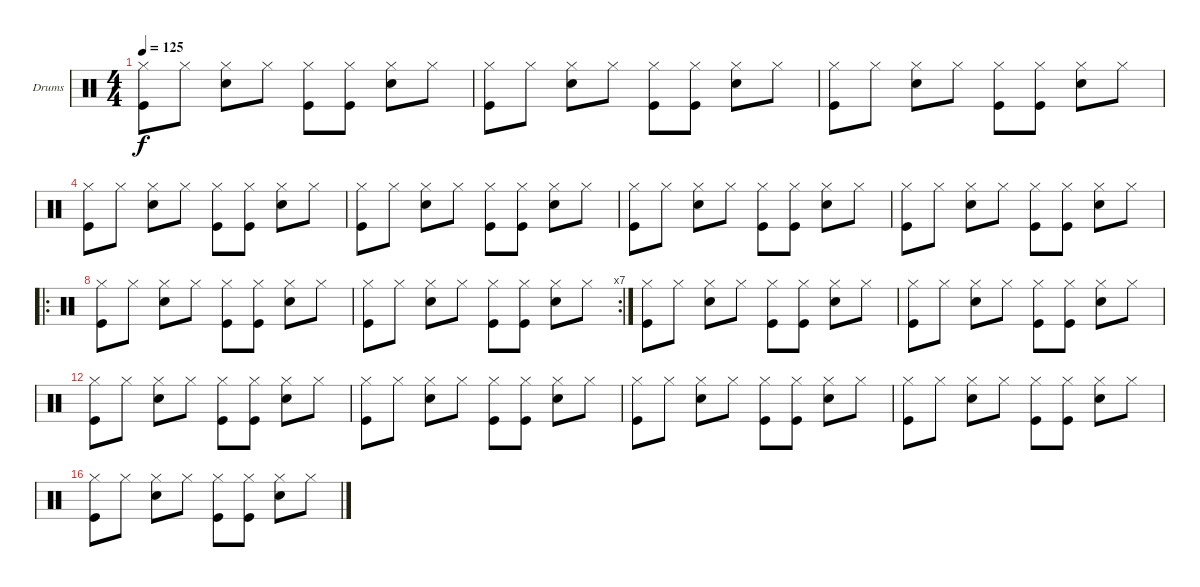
\bracketExtendMode nobrackets
\firstSystemTrackNameOrientation horizontal
\otherSystemsTrackNameOrientation horizontal
\defaultBarNumberDisplay FirstOfSystem
\track ("Drumkit" "Drums") {instrument percussion}
\staff {score}
\articulation defaults
\ts (4 4)
\tempo 125
\clef neutral
\ks c
("Hi-Hat (closed)" "Kick (hit)").8{dy f} "Hi-Hat (closed)".8 ("Hi-Hat (closed)" "Snare (hit) 2").8 "Hi-Hat (closed)".8 ("Hi-Hat (closed)" "Kick (hit)").8 ("Hi-Hat (closed)" "Kick (hit)").8 ("Hi-Hat (closed)" "Snare (hit) 2").8 "Hi-Hat (closed)".8 |
("Hi-Hat (closed)" "Kick (hit)").8 "Hi-Hat (closed)".8 ("Hi-Hat (closed)" "Snare (hit) 2").8 "Hi-Hat (closed)".8 ("Hi-Hat (closed)" "Kick (hit)").8 ("Hi-Hat (closed)" "Kick (hit)").8 ("Hi-Hat (closed)" "Snare (hit) 2").8 "Hi-Hat (closed)".8 |
("Hi-Hat (closed)" "Kick (hit)").8 "Hi-Hat (closed)".8 ("Hi-Hat (closed)" "Snare (hit) 2").8 "Hi-Hat (closed)".8 ("Hi-Hat (closed)" "Kick (hit)").8 ("Hi-Hat (closed)" "Kick (hit)").8 ("Hi-Hat (closed)" "Snare (hit) 2").8 "Hi-Hat (closed)".8 |
("Hi-Hat (closed)" "Kick (hit)").8 "Hi-Hat (closed)".8 ("Hi-Hat (closed)" "Snare (hit) 2").8 "Hi-Hat (closed)".8 ("Hi-Hat (closed)" "Kick (hit)").8 ("Hi-Hat (closed)" "Kick (hit)").8 ("Hi-Hat (closed)" "Snare (hit) 2").8 "Hi-Hat (closed)".8 |
("Hi-Hat (closed)" "Kick (hit)").8 "Hi-Hat (closed)".8 ("Hi-Hat (closed)" "Snare (hit) 2").8 "Hi-Hat (closed)".8 ("Hi-Hat (closed)" "Kick (hit)").8 ("Hi-Hat (closed)" "Kick (hit)").8 ("Hi-Hat (closed)" "Snare (hit) 2").8 "Hi-Hat (closed)".8 |
("Hi-Hat (closed)" "Kick (hit)").8 "Hi-Hat (closed)".8 ("Hi-Hat (closed)" "Snare (hit) 2").8 "Hi-Hat (closed)".8 ("Hi-Hat (closed)" "Kick (hit)").8 ("Hi-Hat (closed)" "Kick (hit)").8 ("Hi-Hat (closed)" "Snare (hit) 2").8 "Hi-Hat (closed)".8 |
("Hi-Hat (closed)" "Kick (hit)").8 "Hi-Hat (closed)".8 ("Hi-Hat (closed)" "Snare (hit) 2").8 "Hi-Hat (closed)".8 ("Hi-Hat (closed)" "Kick (hit)").8 ("Hi-Hat (closed)" "Kick (hit)").8 ("Hi-Hat (closed)" "Snare (hit) 2").8 "Hi-Hat (closed)".8 |
\ro
("Hi-Hat (closed)" "Kick (hit)").8 "Hi-Hat (closed)".8 ("Hi-Hat (closed)" "Snare (hit) 2").8 "Hi-Hat (closed)".8 ("Hi-Hat (closed)" "Kick (hit)").8 ("Hi-Hat (closed)" "Kick (hit)").8 ("Hi-Hat (closed)" "Snare (hit) 2").8 "Hi-Hat (closed)".8 |
\rc 7
("Hi-Hat (closed)" "Kick (hit)").8 "Hi-Hat (closed)".8 ("Hi-Hat (closed)" "Snare (hit) 2").8 "Hi-Hat (closed)".8 ("Hi-Hat (closed)" "Kick (hit)").8 ("Hi-Hat (closed)" "Kick (hit)").8 ("Hi-Hat (closed)" "Snare (hit) 2").8 "Hi-Hat (closed)".8 |
("Hi-Hat (closed)" "Kick (hit)").8 "Hi-Hat (closed)".8 ("Hi-Hat (closed)" "Snare (hit) 2").8 "Hi-Hat (closed)".8 ("Hi-Hat (closed)" "Kick (hit)").8 ("Hi-Hat (closed)" "Kick (hit)").8 ("Hi-Hat (closed)" "Snare (hit) 2").8 "Hi-Hat (closed)".8 |
("Hi-Hat (closed)" "Kick (hit)").8 "Hi-Hat (closed)".8 ("Hi-Hat (closed)" "Snare (hit) 2").8 "Hi-Hat (closed)".8 ("Hi-Hat (closed)" "Kick (hit)").8 ("Hi-Hat (closed)" "Kick (hit)").8 ("Hi-Hat (closed)" "Snare (hit) 2").8 "Hi-Hat (closed)".8 |
("Hi-Hat (closed)" "Kick (hit)").8 "Hi-Hat (closed)".8 ("Hi-Hat (closed)" "Snare (hit) 2").8 "Hi-Hat (closed)".8 ("Hi-Hat (closed)" "Kick (hit)").8 ("Hi-Hat (closed)" "Kick (hit)").8 ("Hi-Hat (closed)" "Snare (hit) 2").8 "Hi-Hat (closed)".8 |
("Hi-Hat (closed)" "Kick (hit)").8 "Hi-Hat (closed)".8 ("Hi-Hat (closed)" "Snare (hit) 2").8 "Hi-Hat (closed)".8 ("Hi-Hat (closed)" "Kick (hit)").8 ("Hi-Hat (closed)" "Kick (hit)").8 ("Hi-Hat (closed)" "Snare (hit) 2").8 "Hi-Hat (closed)".8 |
("Hi-Hat (closed)" "Kick (hit)").8 "Hi-Hat (closed)".8 ("Hi-Hat (closed)" "Snare (hit) 2").8 "Hi-Hat (closed)".8 ("Hi-Hat (closed)" "Kick (hit)").8 ("Hi-Hat (closed)" "Kick (hit)").8 ("Hi-Hat (closed)" "Snare (hit) 2").8 "Hi-Hat (closed)".8 |
("Hi-Hat (closed)" "Kick (hit)").8 "Hi-Hat (closed)".8 ("Hi-Hat (closed)" "Snare (hit) 2").8 "Hi-Hat (closed)".8 ("Hi-Hat (closed)" "Kick (hit)").8 ("Hi-Hat (closed)" "Kick (hit)").8 ("Hi-Hat (closed)" "Snare (hit) 2").8 "Hi-Hat (closed)".8 |
("Hi-Hat (closed)" "Kick (hit)").8 "Hi-Hat (closed)".8 ("Hi-Hat (closed)" "Snare (hit) 2").8 "Hi-Hat (closed)".8 ("Hi-Hat (closed)" "Kick (hit)").8 ("Hi-Hat (closed)" "Kick (hit)").8 ("Hi-Hat (closed)" "Snare (hit) 2").8 "Hi-Hat (closed)".8
